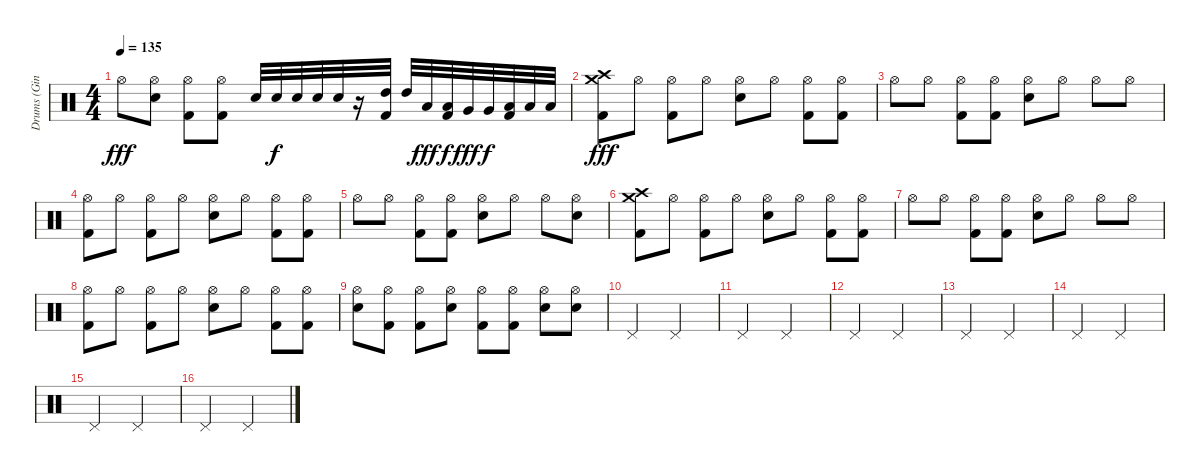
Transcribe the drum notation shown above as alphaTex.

\track ("Drums (Ginger Fish)" "Drums (Gin") {instrument percussion}
\staff {score}
\articulation defaults
\ts (4 4)
\tempo 135
\clef neutral
\ks c "Hi-Hat (open)".8{dy fff}
("Hi-Hat (open)" "Electric Snare (hit)").8 ("Hi-Hat (open)" "Kick (hit) 2").8 ("Hi-Hat (open)" "Kick (hit) 2").8 "Electric Snare (hit)".32 "Electric Snare (hit)".32{dy f} "Electric Snare (hit)".32 "Electric Snare (hit)".32 "Electric Snare (hit)".32 r.16 ("High Tom (hit)" "Kick (hit) 2").32 "High Tom (hit)".32 "Low Tom (hit)".32{dy fff} ("Low Tom (hit)" "Kick (hit) 2").32{dy f} "Very Low Tom (hit)".32{dy fff} "Very Low Tom (hit)".32{dy f} ("Low Floor Tom (hit)" "Kick (hit) 2").32 "Low Floor Tom (hit)".32 "Low Floor Tom (hit)".32 |
("Crash high (hit)" "Crash medium (hit)" "Kick (hit) 2").8{dy fff} "Hi-Hat (open)".8 ("Hi-Hat (open)" "Kick (hit) 2").8 "Hi-Hat (open)".8 ("Hi-Hat (open)" "Electric Snare (hit)").8 "Hi-Hat (open)".8 ("Hi-Hat (open)" "Kick (hit) 2").8 ("Hi-Hat (open)" "Kick (hit) 2").8 |
"Hi-Hat (open)".8 "Hi-Hat (open)".8 ("Hi-Hat (open)" "Kick (hit) 2").8 ("Hi-Hat (open)" "Kick (hit) 2").8 ("Hi-Hat (open)" "Electric Snare (hit)").8 "Hi-Hat (open)".8 "Hi-Hat (open)".8 "Hi-Hat (open)".8 |
("Hi-Hat (open)" "Kick (hit) 2").8 "Hi-Hat (open)".8 ("Hi-Hat (open)" "Kick (hit) 2").8 "Hi-Hat (open)".8 ("Hi-Hat (open)" "Electric Snare (hit)").8 "Hi-Hat (open)".8 ("Hi-Hat (open)" "Kick (hit) 2").8 ("Hi-Hat (open)" "Kick (hit) 2").8 |
"Hi-Hat (open)".8 "Hi-Hat (open)".8 ("Hi-Hat (open)" "Kick (hit) 2").8 ("Hi-Hat (open)" "Kick (hit) 2").8 ("Hi-Hat (open)" "Electric Snare (hit)").8 "Hi-Hat (open)".8 "Hi-Hat (open)".8 ("Hi-Hat (open)" "Electric Snare (hit)").8 |
("Crash high (hit)" "Crash medium (hit)" "Kick (hit) 2").8 "Hi-Hat (open)".8 ("Hi-Hat (open)" "Kick (hit) 2").8 "Hi-Hat (open)".8 ("Hi-Hat (open)" "Electric Snare (hit)").8 "Hi-Hat (open)".8 ("Hi-Hat (open)" "Kick (hit) 2").8 ("Hi-Hat (open)" "Kick (hit) 2").8 |
"Hi-Hat (open)".8 "Hi-Hat (open)".8 ("Hi-Hat (open)" "Kick (hit) 2").8 ("Hi-Hat (open)" "Kick (hit) 2").8 ("Hi-Hat (open)" "Electric Snare (hit)").8 "Hi-Hat (open)".8 "Hi-Hat (open)".8 "Hi-Hat (open)".8 |
("Hi-Hat (open)" "Kick (hit) 2").8 "Hi-Hat (open)".8 ("Hi-Hat (open)" "Kick (hit) 2").8 "Hi-Hat (open)".8 ("Hi-Hat (open)" "Electric Snare (hit)").8 "Hi-Hat (open)".8 ("Hi-Hat (open)" "Kick (hit) 2").8 ("Hi-Hat (open)" "Kick (hit) 2").8 |
("Hi-Hat (open)" "Electric Snare (hit)").8 ("Hi-Hat (open)" "Kick (hit) 2").8 ("Hi-Hat (open)" "Kick (hit) 2").8 ("Hi-Hat (open)" "Electric Snare (hit)").8 ("Hi-Hat (open)" "Kick (hit) 2").8 ("Hi-Hat (open)" "Kick (hit) 2").8 ("Hi-Hat (open)" "Electric Snare (hit)").8 ("Hi-Hat (open)" "Electric Snare (hit)").8 |
"Pedal Hi-Hat (hit)".2 "Pedal Hi-Hat (hit)".2 |
"Pedal Hi-Hat (hit)".2 "Pedal Hi-Hat (hit)".2 |
"Pedal Hi-Hat (hit)".2 "Pedal Hi-Hat (hit)".2 |
"Pedal Hi-Hat (hit)".2 "Pedal Hi-Hat (hit)".2 |
"Pedal Hi-Hat (hit)".2 "Pedal Hi-Hat (hit)".2 |
"Pedal Hi-Hat (hit)".2 "Pedal Hi-Hat (hit)".2 |
"Pedal Hi-Hat (hit)".2 "Pedal Hi-Hat (hit)".2
